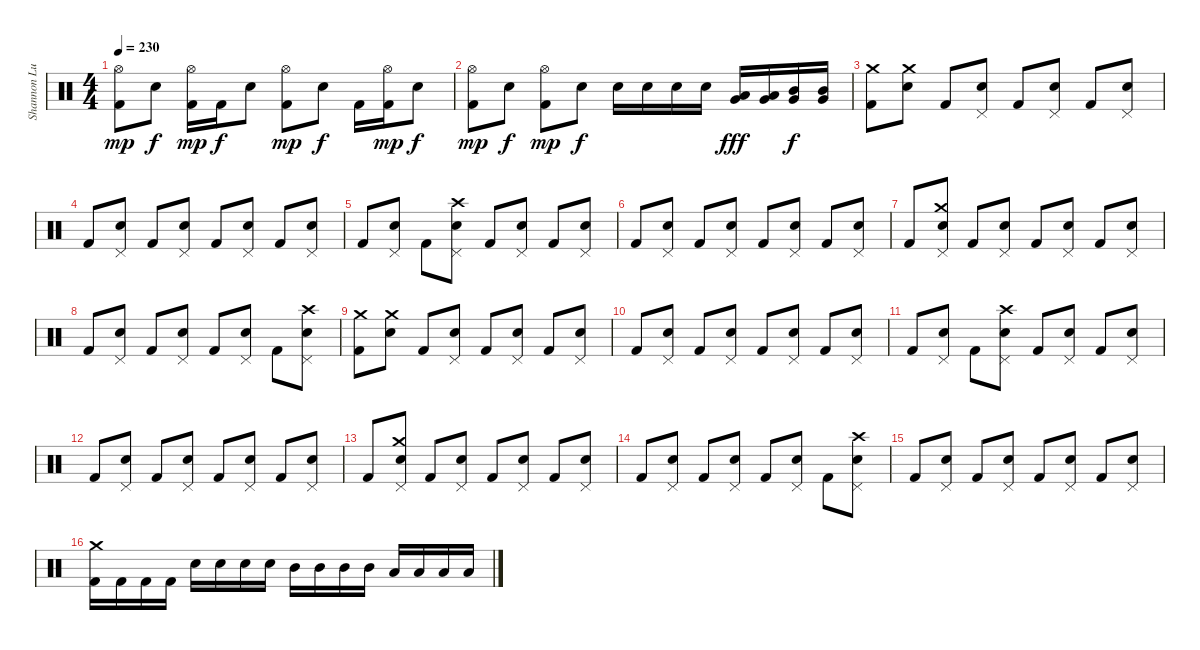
\track ("Shannon Lucas" "Shannon Lu") {instrument percussion}
\staff {score}
\articulation defaults
\ts (4 4)
\tempo 230
\clef neutral
\ks c
("Hi-Hat (open)" "Kick (hit) 2").8{dy mp} "Electric Snare (hit)".8{dy f} ("Hi-Hat (open)" "Kick (hit) 2").16{dy mp} "Kick (hit) 2".16{dy f} "Electric Snare (hit)".8 ("Hi-Hat (open)" "Kick (hit) 2").8{dy mp} "Electric Snare (hit)".8{dy f} "Kick (hit) 2".16 ("Hi-Hat (open)" "Kick (hit) 2").16{dy mp} "Electric Snare (hit)".8{dy f} |
("Hi-Hat (open)" "Kick (hit) 2").8{dy mp} "Electric Snare (hit)".8{dy f} ("Hi-Hat (open)" "Kick (hit) 2").8{dy mp} "Electric Snare (hit)".8{dy f} "Electric Snare (hit)".16 "Electric Snare (hit)".16 "Electric Snare (hit)".16 "Electric Snare (hit)".16 ("Very Low Tom (hit)" "Low Tom (hit)").16{dy fff} ("Very Low Tom (hit)" "Low Tom (hit)").16 ("Very Low Tom (hit)" "Mid Tom (hit)").16{dy f} ("Very Low Tom (hit)" "Mid Tom (hit)").16 |
("Crash medium (hit)" "Kick (hit) 2").8 ("Crash medium (hit)" "Electric Snare (hit)").8 "Kick (hit) 2".8 ("Pedal Hi-Hat (hit)" "Electric Snare (hit)").8 "Kick (hit) 2".8 ("Pedal Hi-Hat (hit)" "Electric Snare (hit)").8 "Kick (hit) 2".8 ("Pedal Hi-Hat (hit)" "Electric Snare (hit)").8 |
"Kick (hit) 2".8 ("Pedal Hi-Hat (hit)" "Electric Snare (hit)").8 "Kick (hit) 2".8 ("Pedal Hi-Hat (hit)" "Electric Snare (hit)").8 "Kick (hit) 2".8 ("Pedal Hi-Hat (hit)" "Electric Snare (hit)").8 "Kick (hit) 2".8 ("Pedal Hi-Hat (hit)" "Electric Snare (hit)").8 |
"Kick (hit) 2".8 ("Pedal Hi-Hat (hit)" "Electric Snare (hit)").8 "Kick (hit) 2".8 ("Pedal Hi-Hat (hit)" "Crash high (hit)" "Electric Snare (hit)").8 "Kick (hit) 2".8 ("Pedal Hi-Hat (hit)" "Electric Snare (hit)").8 "Kick (hit) 2".8 ("Pedal Hi-Hat (hit)" "Electric Snare (hit)").8 |
"Kick (hit) 2".8 ("Pedal Hi-Hat (hit)" "Electric Snare (hit)").8 "Kick (hit) 2".8 ("Pedal Hi-Hat (hit)" "Electric Snare (hit)").8 "Kick (hit) 2".8 ("Pedal Hi-Hat (hit)" "Electric Snare (hit)").8 "Kick (hit) 2".8 ("Pedal Hi-Hat (hit)" "Electric Snare (hit)").8 |
"Kick (hit) 2".8 ("Pedal Hi-Hat (hit)" "Crash medium (hit)" "Electric Snare (hit)").8 "Kick (hit) 2".8 ("Pedal Hi-Hat (hit)" "Electric Snare (hit)").8 "Kick (hit) 2".8 ("Pedal Hi-Hat (hit)" "Electric Snare (hit)").8 "Kick (hit) 2".8 ("Pedal Hi-Hat (hit)" "Electric Snare (hit)").8 |
"Kick (hit) 2".8 ("Pedal Hi-Hat (hit)" "Electric Snare (hit)").8 "Kick (hit) 2".8 ("Pedal Hi-Hat (hit)" "Electric Snare (hit)").8 "Kick (hit) 2".8 ("Pedal Hi-Hat (hit)" "Electric Snare (hit)").8 "Kick (hit) 2".8 ("Pedal Hi-Hat (hit)" "Crash high (hit)" "Electric Snare (hit)").8 |
("Crash medium (hit)" "Kick (hit) 2").8 ("Crash medium (hit)" "Electric Snare (hit)").8 "Kick (hit) 2".8 ("Pedal Hi-Hat (hit)" "Electric Snare (hit)").8 "Kick (hit) 2".8 ("Pedal Hi-Hat (hit)" "Electric Snare (hit)").8 "Kick (hit) 2".8 ("Pedal Hi-Hat (hit)" "Electric Snare (hit)").8 |
"Kick (hit) 2".8 ("Pedal Hi-Hat (hit)" "Electric Snare (hit)").8 "Kick (hit) 2".8 ("Pedal Hi-Hat (hit)" "Electric Snare (hit)").8 "Kick (hit) 2".8 ("Pedal Hi-Hat (hit)" "Electric Snare (hit)").8 "Kick (hit) 2".8 ("Pedal Hi-Hat (hit)" "Electric Snare (hit)").8 |
"Kick (hit) 2".8 ("Pedal Hi-Hat (hit)" "Electric Snare (hit)").8 "Kick (hit) 2".8 ("Pedal Hi-Hat (hit)" "Crash high (hit)" "Electric Snare (hit)").8 "Kick (hit) 2".8 ("Pedal Hi-Hat (hit)" "Electric Snare (hit)").8 "Kick (hit) 2".8 ("Pedal Hi-Hat (hit)" "Electric Snare (hit)").8 |
"Kick (hit) 2".8 ("Pedal Hi-Hat (hit)" "Electric Snare (hit)").8 "Kick (hit) 2".8 ("Pedal Hi-Hat (hit)" "Electric Snare (hit)").8 "Kick (hit) 2".8 ("Pedal Hi-Hat (hit)" "Electric Snare (hit)").8 "Kick (hit) 2".8 ("Pedal Hi-Hat (hit)" "Electric Snare (hit)").8 |
"Kick (hit) 2".8 ("Pedal Hi-Hat (hit)" "Crash medium (hit)" "Electric Snare (hit)").8 "Kick (hit) 2".8 ("Pedal Hi-Hat (hit)" "Electric Snare (hit)").8 "Kick (hit) 2".8 ("Pedal Hi-Hat (hit)" "Electric Snare (hit)").8 "Kick (hit) 2".8 ("Pedal Hi-Hat (hit)" "Electric Snare (hit)").8 |
"Kick (hit) 2".8 ("Pedal Hi-Hat (hit)" "Electric Snare (hit)").8 "Kick (hit) 2".8 ("Pedal Hi-Hat (hit)" "Electric Snare (hit)").8 "Kick (hit) 2".8 ("Pedal Hi-Hat (hit)" "Electric Snare (hit)").8 "Kick (hit) 2".8 ("Pedal Hi-Hat (hit)" "Crash high (hit)" "Electric Snare (hit)").8 |
"Kick (hit) 2".8 ("Pedal Hi-Hat (hit)" "Electric Snare (hit)").8 "Kick (hit) 2".8 ("Pedal Hi-Hat (hit)" "Electric Snare (hit)").8 "Kick (hit) 2".8 ("Pedal Hi-Hat (hit)" "Electric Snare (hit)").8 "Kick (hit) 2".8 ("Pedal Hi-Hat (hit)" "Electric Snare (hit)").8 |
("Crash medium (hit)" "Kick (hit) 2").16 "Kick (hit) 2".16 "Kick (hit) 2".16 "Kick (hit) 2".16 "Electric Snare (hit)".16 "Electric Snare (hit)".16 "Electric Snare (hit)".16 "Electric Snare (hit)".16 "Mid Tom (hit)".16 "Mid Tom (hit)".16 "Mid Tom (hit)".16 "Mid Tom (hit)".16 "Low Tom (hit)".16 "Low Tom (hit)".16 "Low Tom (hit)".16 "Low Tom (hit)".16
